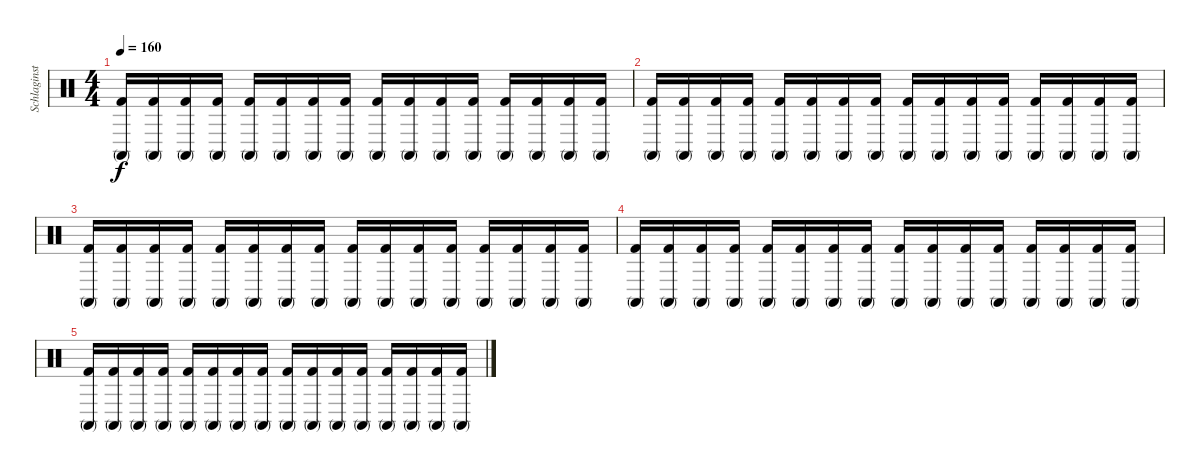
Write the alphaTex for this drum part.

\track ("Schlaginstrumente - Auswahl" "Schlaginst") {instrument percussion}
\staff {score}
\articulation defaults
\ts (4 4)
\tempo 160
\clef neutral
\ks c
("Conga high (mute)" "Kick (hit) 2").16{dy f} ("Conga high (mute)" "Kick (hit) 2").16 ("Conga high (mute)" "Kick (hit) 2").16 ("Conga high (mute)" "Kick (hit) 2").16 ("Conga high (mute)" "Kick (hit) 2").16 ("Conga high (mute)" "Kick (hit) 2").16 ("Conga high (mute)" "Kick (hit) 2").16 ("Conga high (mute)" "Kick (hit) 2").16 ("Conga high (mute)" "Kick (hit) 2").16 ("Conga high (mute)" "Kick (hit) 2").16 ("Conga high (mute)" "Kick (hit) 2").16 ("Conga high (mute)" "Kick (hit) 2").16 ("Conga high (mute)" "Kick (hit) 2").16 ("Conga high (mute)" "Kick (hit) 2").16 ("Conga high (mute)" "Kick (hit) 2").16 ("Conga high (mute)" "Kick (hit) 2").16 |
("Conga high (mute)" "Kick (hit) 2").16 ("Conga high (mute)" "Kick (hit) 2").16 ("Conga high (mute)" "Kick (hit) 2").16 ("Conga high (mute)" "Kick (hit) 2").16 ("Conga high (mute)" "Kick (hit) 2").16 ("Conga high (mute)" "Kick (hit) 2").16 ("Conga high (mute)" "Kick (hit) 2").16 ("Conga high (mute)" "Kick (hit) 2").16 ("Conga high (mute)" "Kick (hit) 2").16 ("Conga high (mute)" "Kick (hit) 2").16 ("Conga high (mute)" "Kick (hit) 2").16 ("Conga high (mute)" "Kick (hit) 2").16 ("Conga high (mute)" "Kick (hit) 2").16 ("Conga high (mute)" "Kick (hit) 2").16 ("Conga high (mute)" "Kick (hit) 2").16 ("Conga high (mute)" "Kick (hit) 2").16 |
("Conga high (mute)" "Kick (hit) 2").16 ("Conga high (mute)" "Kick (hit) 2").16 ("Conga high (mute)" "Kick (hit) 2").16 ("Conga high (mute)" "Kick (hit) 2").16 ("Conga high (mute)" "Kick (hit) 2").16 ("Conga high (mute)" "Kick (hit) 2").16 ("Conga high (mute)" "Kick (hit) 2").16 ("Conga high (mute)" "Kick (hit) 2").16 ("Conga high (mute)" "Kick (hit) 2").16 ("Conga high (mute)" "Kick (hit) 2").16 ("Conga high (mute)" "Kick (hit) 2").16 ("Conga high (mute)" "Kick (hit) 2").16 ("Conga high (mute)" "Kick (hit) 2").16 ("Conga high (mute)" "Kick (hit) 2").16 ("Conga high (mute)" "Kick (hit) 2").16 ("Conga high (mute)" "Kick (hit) 2").16 |
("Conga high (mute)" "Kick (hit) 2").16 ("Conga high (mute)" "Kick (hit) 2").16 ("Conga high (mute)" "Kick (hit) 2").16 ("Conga high (mute)" "Kick (hit) 2").16 ("Conga high (mute)" "Kick (hit) 2").16 ("Conga high (mute)" "Kick (hit) 2").16 ("Conga high (mute)" "Kick (hit) 2").16 ("Conga high (mute)" "Kick (hit) 2").16 ("Conga high (mute)" "Kick (hit) 2").16 ("Conga high (mute)" "Kick (hit) 2").16 ("Conga high (mute)" "Kick (hit) 2").16 ("Conga high (mute)" "Kick (hit) 2").16 ("Conga high (mute)" "Kick (hit) 2").16 ("Conga high (mute)" "Kick (hit) 2").16 ("Conga high (mute)" "Kick (hit) 2").16 ("Conga high (mute)" "Kick (hit) 2").16 |
("Conga high (mute)" "Kick (hit) 2").16 ("Conga high (mute)" "Kick (hit) 2").16 ("Conga high (mute)" "Kick (hit) 2").16 ("Conga high (mute)" "Kick (hit) 2").16 ("Conga high (mute)" "Kick (hit) 2").16 ("Conga high (mute)" "Kick (hit) 2").16 ("Conga high (mute)" "Kick (hit) 2").16 ("Conga high (mute)" "Kick (hit) 2").16 ("Conga high (mute)" "Kick (hit) 2").16 ("Conga high (mute)" "Kick (hit) 2").16 ("Conga high (mute)" "Kick (hit) 2").16 ("Conga high (mute)" "Kick (hit) 2").16 ("Conga high (mute)" "Kick (hit) 2").16 ("Conga high (mute)" "Kick (hit) 2").16 ("Conga high (mute)" "Kick (hit) 2").16 ("Conga high (mute)" "Kick (hit) 2").16
